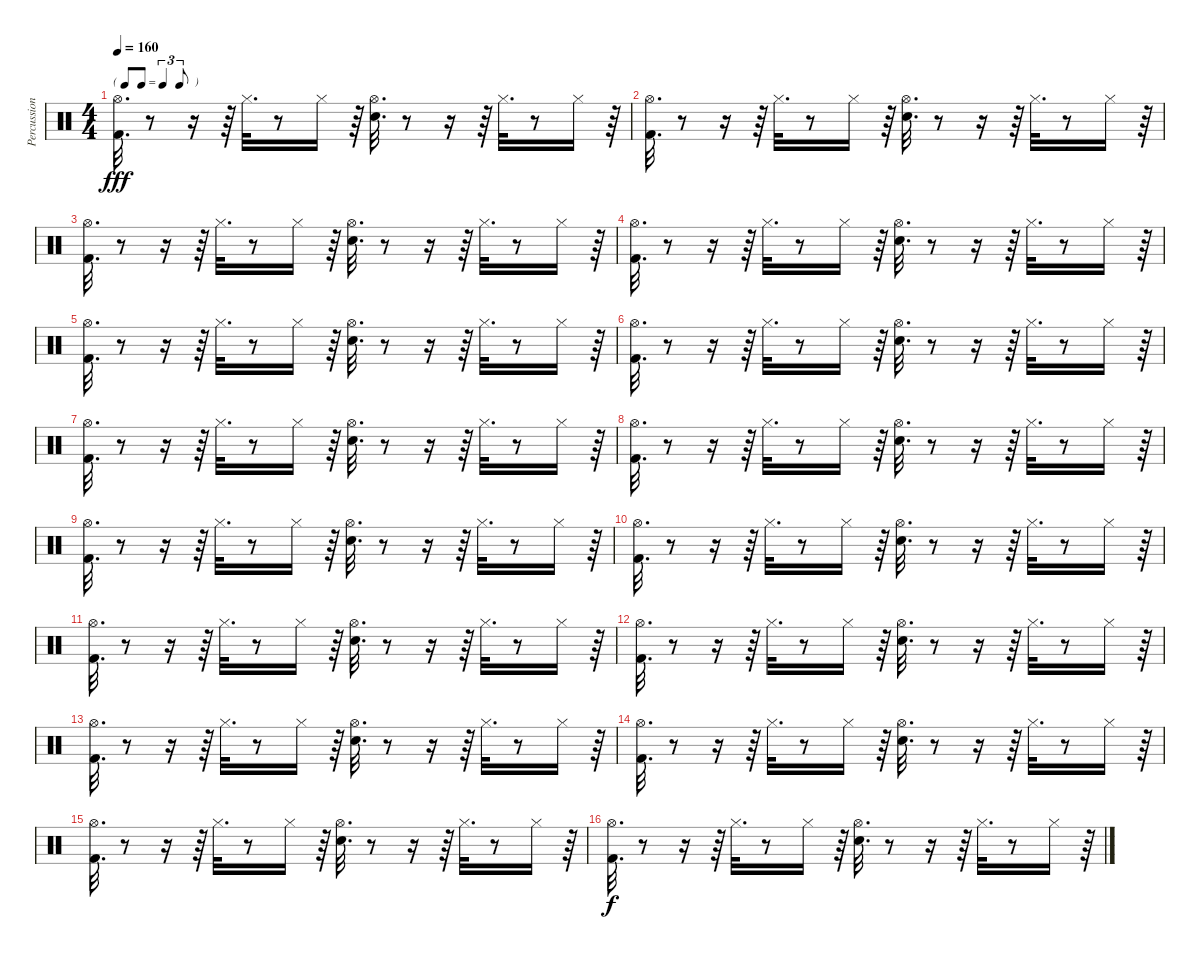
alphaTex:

\track ("Percussions" "Percussion") {instrument percussion}
\staff {score}
\articulation defaults
\ts (4 4)
\tf triplet8th
\tempo 160
\clef neutral
\ks c
("Hi-Hat (open)" "Kick (hit) 2").32{d dy fff} r.8 r.16 r.64 "Hi-Hat (closed)".32{d} r.8 "Hi-Hat (closed)".16 r.64 ("Hi-Hat (open)" "Electric Snare (hit)").32{d} r.8 r.16 r.64 "Hi-Hat (closed)".32{d} r.8 "Hi-Hat (closed)".16 r.64 |
("Hi-Hat (open)" "Kick (hit) 2").32{d} r.8 r.16 r.64 "Hi-Hat (closed)".32{d} r.8 "Hi-Hat (closed)".16 r.64 ("Hi-Hat (open)" "Electric Snare (hit)").32{d} r.8 r.16 r.64 "Hi-Hat (closed)".32{d} r.8 "Hi-Hat (closed)".16 r.64 |
("Hi-Hat (open)" "Kick (hit) 2").32{d} r.8 r.16 r.64 "Hi-Hat (closed)".32{d} r.8 "Hi-Hat (closed)".16 r.64 ("Hi-Hat (open)" "Electric Snare (hit)").32{d} r.8 r.16 r.64 "Hi-Hat (closed)".32{d} r.8 "Hi-Hat (closed)".16 r.64 |
("Hi-Hat (open)" "Kick (hit) 2").32{d} r.8 r.16 r.64 "Hi-Hat (closed)".32{d} r.8 "Hi-Hat (closed)".16 r.64 ("Hi-Hat (open)" "Electric Snare (hit)").32{d} r.8 r.16 r.64 "Hi-Hat (closed)".32{d} r.8 "Hi-Hat (closed)".16 r.64 |
("Hi-Hat (open)" "Kick (hit) 2").32{d} r.8 r.16 r.64 "Hi-Hat (closed)".32{d} r.8 "Hi-Hat (closed)".16 r.64 ("Hi-Hat (open)" "Electric Snare (hit)").32{d} r.8 r.16 r.64 "Hi-Hat (closed)".32{d} r.8 "Hi-Hat (closed)".16 r.64 |
("Hi-Hat (open)" "Kick (hit) 2").32{d} r.8 r.16 r.64 "Hi-Hat (closed)".32{d} r.8 "Hi-Hat (closed)".16 r.64 ("Hi-Hat (open)" "Electric Snare (hit)").32{d} r.8 r.16 r.64 "Hi-Hat (closed)".32{d} r.8 "Hi-Hat (closed)".16 r.64 |
("Hi-Hat (open)" "Kick (hit) 2").32{d} r.8 r.16 r.64 "Hi-Hat (closed)".32{d} r.8 "Hi-Hat (closed)".16 r.64 ("Hi-Hat (open)" "Electric Snare (hit)").32{d} r.8 r.16 r.64 "Hi-Hat (closed)".32{d} r.8 "Hi-Hat (closed)".16 r.64 |
("Hi-Hat (open)" "Kick (hit) 2").32{d} r.8 r.16 r.64 "Hi-Hat (closed)".32{d} r.8 "Hi-Hat (closed)".16 r.64 ("Hi-Hat (open)" "Electric Snare (hit)").32{d} r.8 r.16 r.64 "Hi-Hat (closed)".32{d} r.8 "Hi-Hat (closed)".16 r.64 |
("Hi-Hat (open)" "Kick (hit) 2").32{d} r.8 r.16 r.64 "Hi-Hat (closed)".32{d} r.8 "Hi-Hat (closed)".16 r.64 ("Hi-Hat (open)" "Electric Snare (hit)").32{d} r.8 r.16 r.64 "Hi-Hat (closed)".32{d} r.8 "Hi-Hat (closed)".16 r.64 |
("Hi-Hat (open)" "Kick (hit) 2").32{d} r.8 r.16 r.64 "Hi-Hat (closed)".32{d} r.8 "Hi-Hat (closed)".16 r.64 ("Hi-Hat (open)" "Electric Snare (hit)").32{d} r.8 r.16 r.64 "Hi-Hat (closed)".32{d} r.8 "Hi-Hat (closed)".16 r.64 |
("Hi-Hat (open)" "Kick (hit) 2").32{d} r.8 r.16 r.64 "Hi-Hat (closed)".32{d} r.8 "Hi-Hat (closed)".16 r.64 ("Hi-Hat (open)" "Electric Snare (hit)").32{d} r.8 r.16 r.64 "Hi-Hat (closed)".32{d} r.8 "Hi-Hat (closed)".16 r.64 |
("Hi-Hat (open)" "Kick (hit) 2").32{d} r.8 r.16 r.64 "Hi-Hat (closed)".32{d} r.8 "Hi-Hat (closed)".16 r.64 ("Hi-Hat (open)" "Electric Snare (hit)").32{d} r.8 r.16 r.64 "Hi-Hat (closed)".32{d} r.8 "Hi-Hat (closed)".16 r.64 |
("Hi-Hat (open)" "Kick (hit) 2").32{d} r.8 r.16 r.64 "Hi-Hat (closed)".32{d} r.8 "Hi-Hat (closed)".16 r.64 ("Hi-Hat (open)" "Electric Snare (hit)").32{d} r.8 r.16 r.64 "Hi-Hat (closed)".32{d} r.8 "Hi-Hat (closed)".16 r.64 |
("Hi-Hat (open)" "Kick (hit) 2").32{d} r.8 r.16 r.64 "Hi-Hat (closed)".32{d} r.8 "Hi-Hat (closed)".16 r.64 ("Hi-Hat (open)" "Electric Snare (hit)").32{d} r.8 r.16 r.64 "Hi-Hat (closed)".32{d} r.8 "Hi-Hat (closed)".16 r.64 |
("Hi-Hat (open)" "Kick (hit) 2").32{d} r.8 r.16 r.64 "Hi-Hat (closed)".32{d} r.8 "Hi-Hat (closed)".16 r.64 ("Hi-Hat (open)" "Electric Snare (hit)").32{d} r.8 r.16 r.64 "Hi-Hat (closed)".32{d} r.8 "Hi-Hat (closed)".16 r.64 |
("Hi-Hat (open)" "Kick (hit) 2").32{d dy f} r.8 r.16 r.64 "Hi-Hat (closed)".32{d} r.8 "Hi-Hat (closed)".16 r.64 ("Hi-Hat (open)" "Electric Snare (hit)").32{d} r.8 r.16 r.64 "Hi-Hat (closed)".32{d} r.8 "Hi-Hat (closed)".16 r.64
